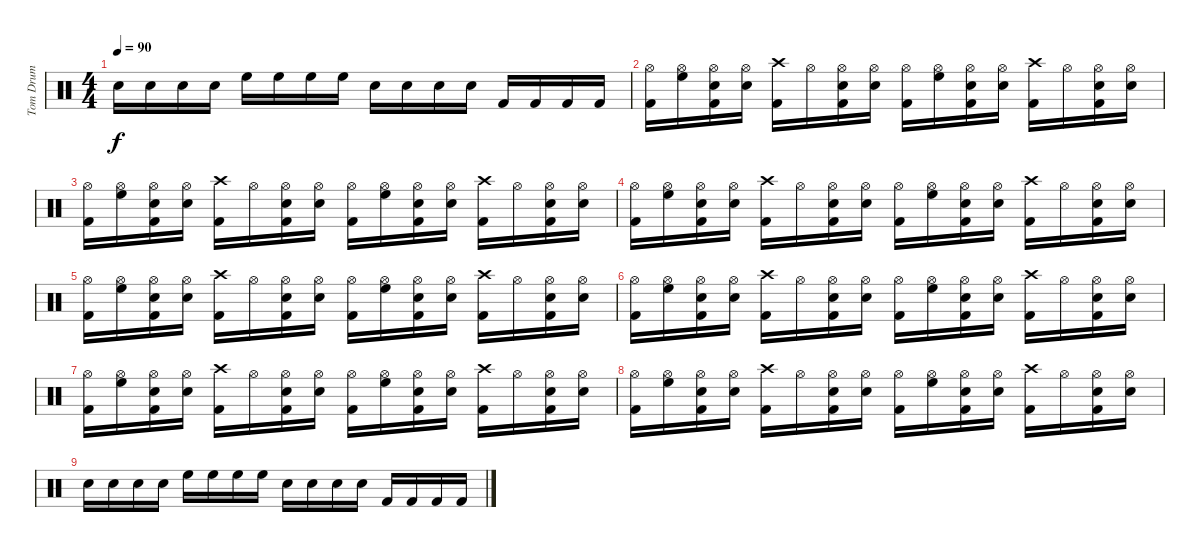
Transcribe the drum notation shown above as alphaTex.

\track ("Tom Drum" "Tom Drum") {instrument percussion}
\staff {score}
\articulation defaults
\ts (4 4)
\tempo 90
\clef neutral
\ks c "Electric Snare (hit)".16{dy f} "Electric Snare (hit)".16 "Electric Snare (hit)".16 "Electric Snare (hit)".16 "High Floor Tom (hit)".16 "High Floor Tom (hit)".16 "High Floor Tom (hit)".16 "High Floor Tom (hit)".16 "Electric Snare (hit)".16 "Electric Snare (hit)".16 "Electric Snare (hit)".16 "Electric Snare (hit)".16 "Kick (hit) 2".16 "Kick (hit) 2".16 "Kick (hit) 2".16 "Kick (hit) 2".16
|
("Hi-Hat (open)" "Kick (hit) 2").16 ("Hi-Hat (open)" "High Floor Tom (hit)").16 ("Hi-Hat (open)" "Electric Snare (hit)" "Kick (hit) 2").16 ("Hi-Hat (open)" "Electric Snare (hit)").16 ("Crash high (hit)" "Kick (hit) 2").16 "Hi-Hat (open)".16 ("Hi-Hat (open)" "Electric Snare (hit)" "Kick (hit) 2").16 ("Hi-Hat (open)" "Electric Snare (hit)").16 ("Hi-Hat (open)" "Kick (hit) 2").16 ("Hi-Hat (open)" "High Floor Tom (hit)").16 ("Hi-Hat (open)" "Electric Snare (hit)" "Kick (hit) 2").16 ("Hi-Hat (open)" "Electric Snare (hit)").16 ("Crash high (hit)" "Kick (hit) 2").16 "Hi-Hat (open)".16 ("Hi-Hat (open)" "Electric Snare (hit)" "Kick (hit) 2").16 ("Hi-Hat (open)" "Electric Snare (hit)").16 |
("Hi-Hat (open)" "Kick (hit) 2").16 ("Hi-Hat (open)" "High Floor Tom (hit)").16 ("Hi-Hat (open)" "Electric Snare (hit)" "Kick (hit) 2").16 ("Hi-Hat (open)" "Electric Snare (hit)").16 ("Crash high (hit)" "Kick (hit) 2").16 "Hi-Hat (open)".16 ("Hi-Hat (open)" "Electric Snare (hit)" "Kick (hit) 2").16 ("Hi-Hat (open)" "Electric Snare (hit)").16 ("Hi-Hat (open)" "Kick (hit) 2").16 ("Hi-Hat (open)" "High Floor Tom (hit)").16 ("Hi-Hat (open)" "Electric Snare (hit)" "Kick (hit) 2").16 ("Hi-Hat (open)" "Electric Snare (hit)").16 ("Crash high (hit)" "Kick (hit) 2").16 "Hi-Hat (open)".16 ("Hi-Hat (open)" "Electric Snare (hit)" "Kick (hit) 2").16 ("Hi-Hat (open)" "Electric Snare (hit)").16 |
("Hi-Hat (open)" "Kick (hit) 2").16 ("Hi-Hat (open)" "High Floor Tom (hit)").16 ("Hi-Hat (open)" "Electric Snare (hit)" "Kick (hit) 2").16 ("Hi-Hat (open)" "Electric Snare (hit)").16 ("Crash high (hit)" "Kick (hit) 2").16 "Hi-Hat (open)".16 ("Hi-Hat (open)" "Electric Snare (hit)" "Kick (hit) 2").16 ("Hi-Hat (open)" "Electric Snare (hit)").16 ("Hi-Hat (open)" "Kick (hit) 2").16 ("Hi-Hat (open)" "High Floor Tom (hit)").16 ("Hi-Hat (open)" "Electric Snare (hit)" "Kick (hit) 2").16 ("Hi-Hat (open)" "Electric Snare (hit)").16 ("Crash high (hit)" "Kick (hit) 2").16 "Hi-Hat (open)".16 ("Hi-Hat (open)" "Electric Snare (hit)" "Kick (hit) 2").16 ("Hi-Hat (open)" "Electric Snare (hit)").16 |
("Hi-Hat (open)" "Kick (hit) 2").16 ("Hi-Hat (open)" "High Floor Tom (hit)").16 ("Hi-Hat (open)" "Electric Snare (hit)" "Kick (hit) 2").16 ("Hi-Hat (open)" "Electric Snare (hit)").16 ("Crash high (hit)" "Kick (hit) 2").16 "Hi-Hat (open)".16 ("Hi-Hat (open)" "Electric Snare (hit)" "Kick (hit) 2").16 ("Hi-Hat (open)" "Electric Snare (hit)").16 ("Hi-Hat (open)" "Kick (hit) 2").16 ("Hi-Hat (open)" "High Floor Tom (hit)").16 ("Hi-Hat (open)" "Electric Snare (hit)" "Kick (hit) 2").16 ("Hi-Hat (open)" "Electric Snare (hit)").16 ("Crash high (hit)" "Kick (hit) 2").16 "Hi-Hat (open)".16 ("Hi-Hat (open)" "Electric Snare (hit)" "Kick (hit) 2").16 ("Hi-Hat (open)" "Electric Snare (hit)").16 |
("Hi-Hat (open)" "Kick (hit) 2").16 ("Hi-Hat (open)" "High Floor Tom (hit)").16 ("Hi-Hat (open)" "Electric Snare (hit)" "Kick (hit) 2").16 ("Hi-Hat (open)" "Electric Snare (hit)").16 ("Crash high (hit)" "Kick (hit) 2").16 "Hi-Hat (open)".16 ("Hi-Hat (open)" "Electric Snare (hit)" "Kick (hit) 2").16 ("Hi-Hat (open)" "Electric Snare (hit)").16 ("Hi-Hat (open)" "Kick (hit) 2").16 ("Hi-Hat (open)" "High Floor Tom (hit)").16 ("Hi-Hat (open)" "Electric Snare (hit)" "Kick (hit) 2").16 ("Hi-Hat (open)" "Electric Snare (hit)").16 ("Crash high (hit)" "Kick (hit) 2").16 "Hi-Hat (open)".16 ("Hi-Hat (open)" "Electric Snare (hit)" "Kick (hit) 2").16 ("Hi-Hat (open)" "Electric Snare (hit)").16 |
("Hi-Hat (open)" "Kick (hit) 2").16 ("Hi-Hat (open)" "High Floor Tom (hit)").16 ("Hi-Hat (open)" "Electric Snare (hit)" "Kick (hit) 2").16 ("Hi-Hat (open)" "Electric Snare (hit)").16 ("Crash high (hit)" "Kick (hit) 2").16 "Hi-Hat (open)".16 ("Hi-Hat (open)" "Electric Snare (hit)" "Kick (hit) 2").16 ("Hi-Hat (open)" "Electric Snare (hit)").16 ("Hi-Hat (open)" "Kick (hit) 2").16 ("Hi-Hat (open)" "High Floor Tom (hit)").16 ("Hi-Hat (open)" "Electric Snare (hit)" "Kick (hit) 2").16 ("Hi-Hat (open)" "Electric Snare (hit)").16 ("Crash high (hit)" "Kick (hit) 2").16 "Hi-Hat (open)".16 ("Hi-Hat (open)" "Electric Snare (hit)" "Kick (hit) 2").16 ("Hi-Hat (open)" "Electric Snare (hit)").16 |
("Hi-Hat (open)" "Kick (hit) 2").16 ("Hi-Hat (open)" "High Floor Tom (hit)").16 ("Hi-Hat (open)" "Electric Snare (hit)" "Kick (hit) 2").16 ("Hi-Hat (open)" "Electric Snare (hit)").16 ("Crash high (hit)" "Kick (hit) 2").16 "Hi-Hat (open)".16 ("Hi-Hat (open)" "Electric Snare (hit)" "Kick (hit) 2").16 ("Hi-Hat (open)" "Electric Snare (hit)").16 ("Hi-Hat (open)" "Kick (hit) 2").16 ("Hi-Hat (open)" "High Floor Tom (hit)").16 ("Hi-Hat (open)" "Electric Snare (hit)" "Kick (hit) 2").16 ("Hi-Hat (open)" "Electric Snare (hit)").16 ("Crash high (hit)" "Kick (hit) 2").16 "Hi-Hat (open)".16 ("Hi-Hat (open)" "Electric Snare (hit)" "Kick (hit) 2").16 ("Hi-Hat (open)" "Electric Snare (hit)").16 |
"Electric Snare (hit)".16 "Electric Snare (hit)".16 "Electric Snare (hit)".16 "Electric Snare (hit)".16 "High Floor Tom (hit)".16 "High Floor Tom (hit)".16 "High Floor Tom (hit)".16 "High Floor Tom (hit)".16 "Electric Snare (hit)".16 "Electric Snare (hit)".16 "Electric Snare (hit)".16 "Electric Snare (hit)".16 "Kick (hit) 2".16 "Kick (hit) 2".16 "Kick (hit) 2".16 "Kick (hit) 2".16
